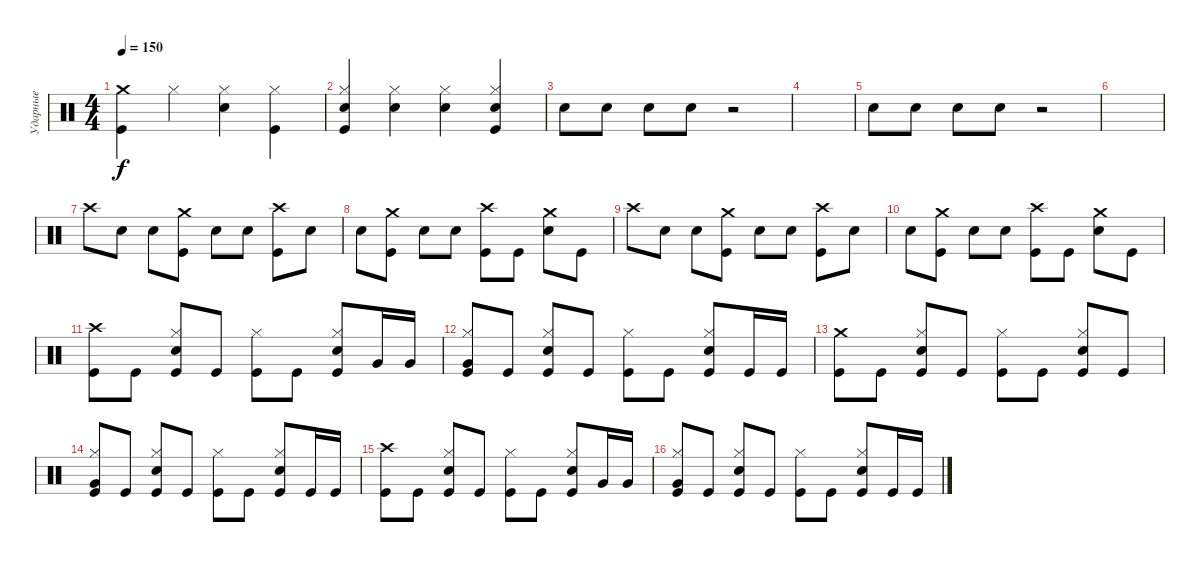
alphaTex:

\track ("Ударные" "Ударные") {instrument percussion}
\staff {score}
\articulation defaults
\ts (4 4)
\tempo 150
\clef neutral
\ks c
("Crash medium (hit)" "Kick (hit)").4{dy f} "Hi-Hat (closed)".4 ("Hi-Hat (closed)" "Electric Snare (hit)").4 ("Hi-Hat (closed)" "Kick (hit)").4 |
("Hi-Hat (closed)" "Electric Snare (hit)" "Kick (hit)").4 ("Hi-Hat (closed)" "Electric Snare (hit)").4 ("Hi-Hat (closed)" "Electric Snare (hit)").4 ("Hi-Hat (closed)" "Electric Snare (hit)" "Kick (hit)").4 |
"Electric Snare (hit)".8 "Electric Snare (hit)".8 "Electric Snare (hit)".8 "Electric Snare (hit)".8 r.2 |
|
"Electric Snare (hit)".8 "Electric Snare (hit)".8 "Electric Snare (hit)".8 "Electric Snare (hit)".8 r.2 |
|
"Crash high (hit)".8 "Electric Snare (hit)".8 "Electric Snare (hit)".8 ("Kick (hit)" "Crash medium (hit)").8 "Electric Snare (hit)".8 "Electric Snare (hit)".8 ("Kick (hit)" "Crash high (hit)").8 "Electric Snare (hit)".8 |
"Electric Snare (hit)".8 ("Kick (hit)" "Crash medium (hit)").8 "Electric Snare (hit)".8 "Electric Snare (hit)".8 ("Kick (hit)" "Crash high (hit)").8 "Kick (hit)".8 ("Electric Snare (hit)" "Crash medium (hit)").8 "Kick (hit)".8 |
"Crash high (hit)".8 "Electric Snare (hit)".8 "Electric Snare (hit)".8 ("Kick (hit)" "Crash medium (hit)").8 "Electric Snare (hit)".8 "Electric Snare (hit)".8 ("Kick (hit)" "Crash high (hit)").8 "Electric Snare (hit)".8 |
"Electric Snare (hit)".8 ("Kick (hit)" "Crash medium (hit)").8 "Electric Snare (hit)".8 "Electric Snare (hit)".8 ("Kick (hit)" "Crash high (hit)").8 "Kick (hit)".8 ("Electric Snare (hit)" "Crash medium (hit)").8 "Kick (hit)".8 |
("Crash high (hit)" "Kick (hit)").8 "Kick (hit)".8 ("Hi-Hat (closed)" "Electric Snare (hit)" "Kick (hit)").8 "Kick (hit)".8 ("Hi-Hat (closed)" "Kick (hit)").8 "Kick (hit)".8 ("Hi-Hat (closed)" "Electric Snare (hit)" "Kick (hit)").8 "Very Low Tom (hit)".16 "Very Low Tom (hit)".16 |
("Hi-Hat (closed)" "Very Low Tom (hit)" "Kick (hit)").8 "Kick (hit)".8 ("Hi-Hat (closed)" "Electric Snare (hit)" "Kick (hit)").8 "Kick (hit)".8 ("Hi-Hat (closed)" "Kick (hit)").8 "Kick (hit)".8 ("Hi-Hat (closed)" "Electric Snare (hit)" "Kick (hit)").8 "Kick (hit)".16 "Kick (hit)".16 |
("Crash medium (hit)" "Kick (hit)").8 "Kick (hit)".8 ("Hi-Hat (closed)" "Electric Snare (hit)" "Kick (hit)").8 "Kick (hit)".8 ("Hi-Hat (closed)" "Kick (hit)").8 "Kick (hit)".8 ("Hi-Hat (closed)" "Electric Snare (hit)" "Kick (hit)").8 "Kick (hit)".8 |
("Hi-Hat (closed)" "Very Low Tom (hit)" "Kick (hit)").8 "Kick (hit)".8 ("Hi-Hat (closed)" "Electric Snare (hit)" "Kick (hit)").8 "Kick (hit)".8 ("Hi-Hat (closed)" "Kick (hit)").8 "Kick (hit)".8 ("Hi-Hat (closed)" "Electric Snare (hit)" "Kick (hit)").8 "Kick (hit)".16 "Kick (hit)".16 |
("Crash high (hit)" "Kick (hit)").8 "Kick (hit)".8 ("Hi-Hat (closed)" "Electric Snare (hit)" "Kick (hit)").8 "Kick (hit)".8 ("Hi-Hat (closed)" "Kick (hit)").8 "Kick (hit)".8 ("Hi-Hat (closed)" "Electric Snare (hit)" "Kick (hit)").8 "Very Low Tom (hit)".16 "Very Low Tom (hit)".16 |
("Hi-Hat (closed)" "Very Low Tom (hit)" "Kick (hit)").8 "Kick (hit)".8 ("Hi-Hat (closed)" "Electric Snare (hit)" "Kick (hit)").8 "Kick (hit)".8 ("Hi-Hat (closed)" "Kick (hit)").8 "Kick (hit)".8 ("Hi-Hat (closed)" "Electric Snare (hit)" "Kick (hit)").8 "Kick (hit)".16 "Kick (hit)".16
